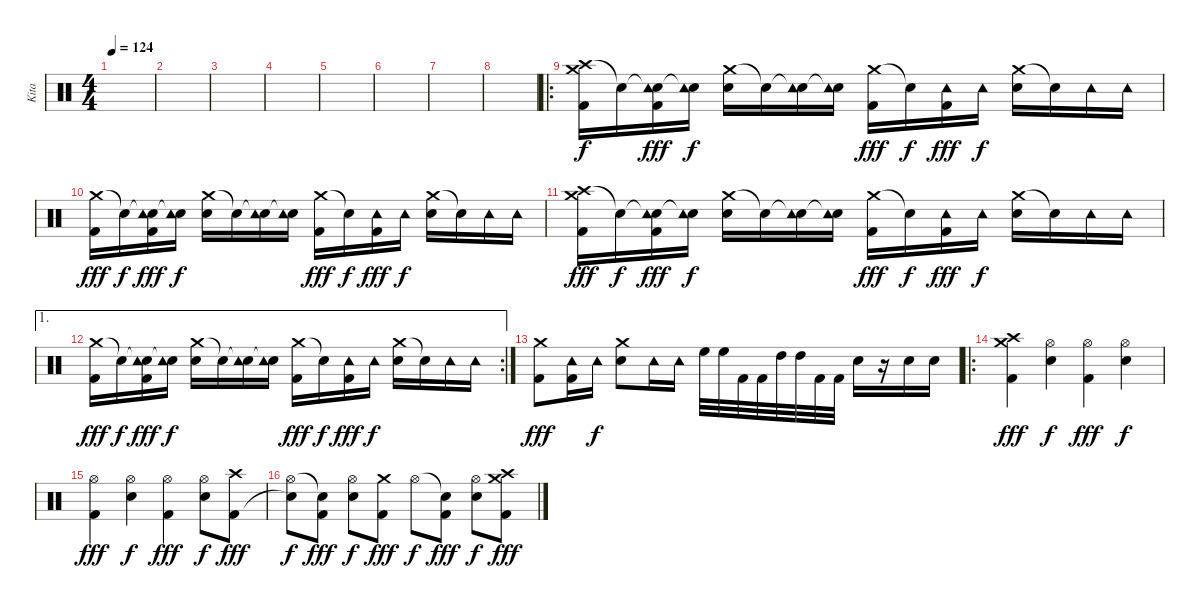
\track ("Kita" "Kita") {instrument percussion}
\staff {score}
\articulation defaults
\ts (4 4)
\tempo 124
\clef neutral
\ks c
|
|
|
|
|
|
|
|
\ro
("Crash high (hit)" "Kick (hit) 2" "Crash medium (hit)").16 "Snare (hit)"{t}.16{dy f} ("Snare (hit)"{t} "Tambourine (hit)" "Kick (hit) 2").16{dy fff} ("Snare (hit)"{t} "Tambourine (hit)").16{dy f} ("Crash medium (hit)" "Electric Snare (hit)").16 "Snare (hit)"{t}.16 ("Snare (hit)"{t} "Tambourine (hit)").16 ("Snare (hit)"{t} "Tambourine (hit)").16 ("Crash medium (hit)" "Kick (hit) 2").16{dy fff} "Snare (hit)"{t}.16{dy f} ("Tambourine (hit)" "Kick (hit) 2").16{dy fff} "Tambourine (hit)".16{dy f} ("Crash medium (hit)" "Electric Snare (hit)").16 "Snare (hit)"{t}.16 "Tambourine (hit)".16 "Tambourine (hit)".16 |
("Crash medium (hit)" "Kick (hit) 2").16{dy fff} "Snare (hit)"{t}.16{dy f} ("Snare (hit)"{t} "Tambourine (hit)" "Kick (hit) 2").16{dy fff} ("Snare (hit)"{t} "Tambourine (hit)").16{dy f} ("Crash medium (hit)" "Electric Snare (hit)").16 "Snare (hit)"{t}.16 ("Snare (hit)"{t} "Tambourine (hit)").16 ("Snare (hit)"{t} "Tambourine (hit)").16 ("Crash medium (hit)" "Kick (hit) 2").16{dy fff} "Snare (hit)"{t}.16{dy f} ("Tambourine (hit)" "Kick (hit) 2").16{dy fff} "Tambourine (hit)".16{dy f} ("Crash medium (hit)" "Electric Snare (hit)").16 "Snare (hit)"{t}.16 "Tambourine (hit)".16 "Tambourine (hit)".16 |
("Crash high (hit)" "Kick (hit) 2" "Crash medium (hit)").16{dy fff} "Snare (hit)"{t}.16{dy f} ("Snare (hit)"{t} "Tambourine (hit)" "Kick (hit) 2").16{dy fff} ("Snare (hit)"{t} "Tambourine (hit)").16{dy f} ("Crash medium (hit)" "Electric Snare (hit)").16 "Snare (hit)"{t}.16 ("Snare (hit)"{t} "Tambourine (hit)").16 ("Snare (hit)"{t} "Tambourine (hit)").16 ("Crash medium (hit)" "Kick (hit) 2").16{dy fff} "Snare (hit)"{t}.16{dy f} ("Tambourine (hit)" "Kick (hit) 2").16{dy fff} "Tambourine (hit)".16{dy f} ("Crash medium (hit)" "Electric Snare (hit)").16 "Snare (hit)"{t}.16 "Tambourine (hit)".16 "Tambourine (hit)".16 |
\ae 1
\rc 2
("Crash medium (hit)" "Kick (hit) 2").16{dy fff} "Snare (hit)"{t}.16{dy f} ("Snare (hit)"{t} "Tambourine (hit)" "Kick (hit) 2").16{dy fff} ("Snare (hit)"{t} "Tambourine (hit)").16{dy f} ("Crash medium (hit)" "Electric Snare (hit)").16 "Snare (hit)"{t}.16 ("Snare (hit)"{t} "Tambourine (hit)").16 ("Snare (hit)"{t} "Tambourine (hit)").16 ("Crash medium (hit)" "Kick (hit) 2").16{dy fff} "Snare (hit)"{t}.16{dy f} ("Tambourine (hit)" "Kick (hit) 2").16{dy fff} "Tambourine (hit)".16{dy f} ("Crash medium (hit)" "Electric Snare (hit)").16 "Snare (hit)"{t}.16 "Tambourine (hit)".16 "Tambourine (hit)".16 |
("Crash medium (hit)" "Kick (hit) 2").8{dy fff} ("Tambourine (hit)" "Kick (hit) 2").16 "Tambourine (hit)".16{dy f} ("Crash medium (hit)" "Electric Snare (hit)").8 "Tambourine (hit)".16 "Tambourine (hit)".16 "High Floor Tom (hit)".32 "High Floor Tom (hit)".32 "Kick (hit) 2".32 "Kick (hit) 2".32 "High Tom (hit)".32 "High Tom (hit)".32 "Kick (hit) 2".32 "Kick (hit) 2".32 "Electric Snare (hit)".16 r.16 "Electric Snare (hit)".16 "Electric Snare (hit)".16 |
\ro
("Crash high (hit)" "Kick (hit) 2" "Crash medium (hit)").4{dy fff} ("Hi-Hat (open)" "Electric Snare (hit)").4{dy f} ("Hi-Hat (open)" "Kick (hit) 2").4{dy fff} ("Hi-Hat (open)" "Electric Snare (hit)").4{dy f} |
("Hi-Hat (open)" "Kick (hit) 2").4{dy fff} ("Hi-Hat (open)" "Electric Snare (hit)").4{dy f} ("Hi-Hat (open)" "Kick (hit) 2").4{dy fff} ("Hi-Hat (open)" "Electric Snare (hit)").8{dy f} ("Crash high (hit)" "Kick (hit) 2").8{dy fff} |
("Hi-Hat (open)" "Snare (hit)"{t}).8{dy f} ("Snare (hit)"{t} "Kick (hit) 2").8{dy fff} ("Hi-Hat (open)" "Electric Snare (hit)").8{dy f} ("Crash medium (hit)" "Kick (hit) 2").8{dy fff} "Hi-Hat (open)".8{dy f} ("Snare (hit)"{t} "Kick (hit) 2").8{dy fff} ("Hi-Hat (open)" "Electric Snare (hit)").8{dy f} ("Crash high (hit)" "Kick (hit) 2" "Crash medium (hit)").8{dy fff}
